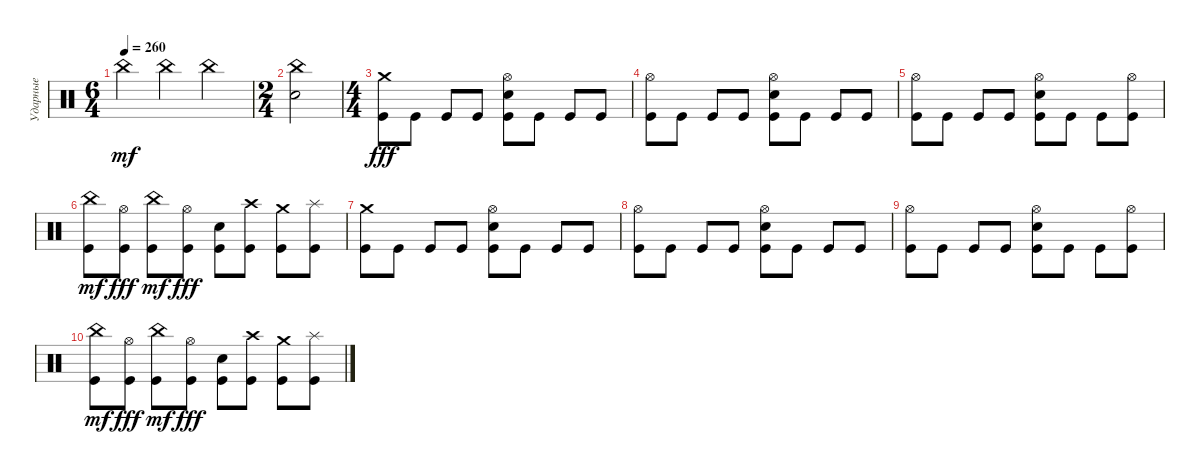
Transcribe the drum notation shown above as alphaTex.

\track ("Ударные" "Ударные") {instrument percussion}
\staff {score}
\articulation defaults
\ts (6 4)
\tempo 260
\clef neutral
\ks c "China (hit)".2{dy mf} "China (hit)".2 "China (hit)".2
|
\ts (2 4)
("Electric Snare (hit)" "China (hit)").2 |
\ts (4 4)
("Kick (hit)" "Crash medium (hit)").8{dy fff} "Kick (hit)".8 "Kick (hit)".8 "Kick (hit)".8 ("Kick (hit)" "Hi-Hat (open)" "Electric Snare (hit)").8 "Kick (hit)".8 "Kick (hit)".8 "Kick (hit)".8 |
("Kick (hit)" "Hi-Hat (open)").8 "Kick (hit)".8 "Kick (hit)".8 "Kick (hit)".8 ("Kick (hit)" "Hi-Hat (open)" "Electric Snare (hit)").8 "Kick (hit)".8 "Kick (hit)".8 "Kick (hit)".8 |
("Kick (hit)" "Hi-Hat (open)").8 "Kick (hit)".8 "Kick (hit)".8 "Kick (hit)".8 ("Kick (hit)" "Hi-Hat (open)" "Electric Snare (hit)").8 "Kick (hit)".8 "Kick (hit)".8 ("Kick (hit)" "Hi-Hat (open)").8 |
("Kick (hit)" "China (hit)").8{dy mf} ("Kick (hit)" "Hi-Hat (open)").8{dy fff} ("Kick (hit)" "China (hit)").8{dy mf} ("Kick (hit)" "Hi-Hat (open)").8{dy fff} ("Kick (hit)" "Electric Snare (hit)").8 ("Kick (hit)" "Crash high (hit)").8 ("Kick (hit)" "Crash medium (hit)").8 ("Kick (hit)" "Splash (hit)").8 |
("Kick (hit)" "Crash medium (hit)").8 "Kick (hit)".8 "Kick (hit)".8 "Kick (hit)".8 ("Kick (hit)" "Hi-Hat (open)" "Electric Snare (hit)").8 "Kick (hit)".8 "Kick (hit)".8 "Kick (hit)".8 |
("Kick (hit)" "Hi-Hat (open)").8 "Kick (hit)".8 "Kick (hit)".8 "Kick (hit)".8 ("Kick (hit)" "Hi-Hat (open)" "Electric Snare (hit)").8 "Kick (hit)".8 "Kick (hit)".8 "Kick (hit)".8 |
("Kick (hit)" "Hi-Hat (open)").8 "Kick (hit)".8 "Kick (hit)".8 "Kick (hit)".8 ("Kick (hit)" "Hi-Hat (open)" "Electric Snare (hit)").8 "Kick (hit)".8 "Kick (hit)".8 ("Kick (hit)" "Hi-Hat (open)").8 |
("Kick (hit)" "China (hit)").8{dy mf} ("Kick (hit)" "Hi-Hat (open)").8{dy fff} ("Kick (hit)" "China (hit)").8{dy mf} ("Kick (hit)" "Hi-Hat (open)").8{dy fff} ("Kick (hit)" "Electric Snare (hit)").8 ("Kick (hit)" "Crash high (hit)").8 ("Kick (hit)" "Crash medium (hit)").8 ("Kick (hit)" "Splash (hit)").8
